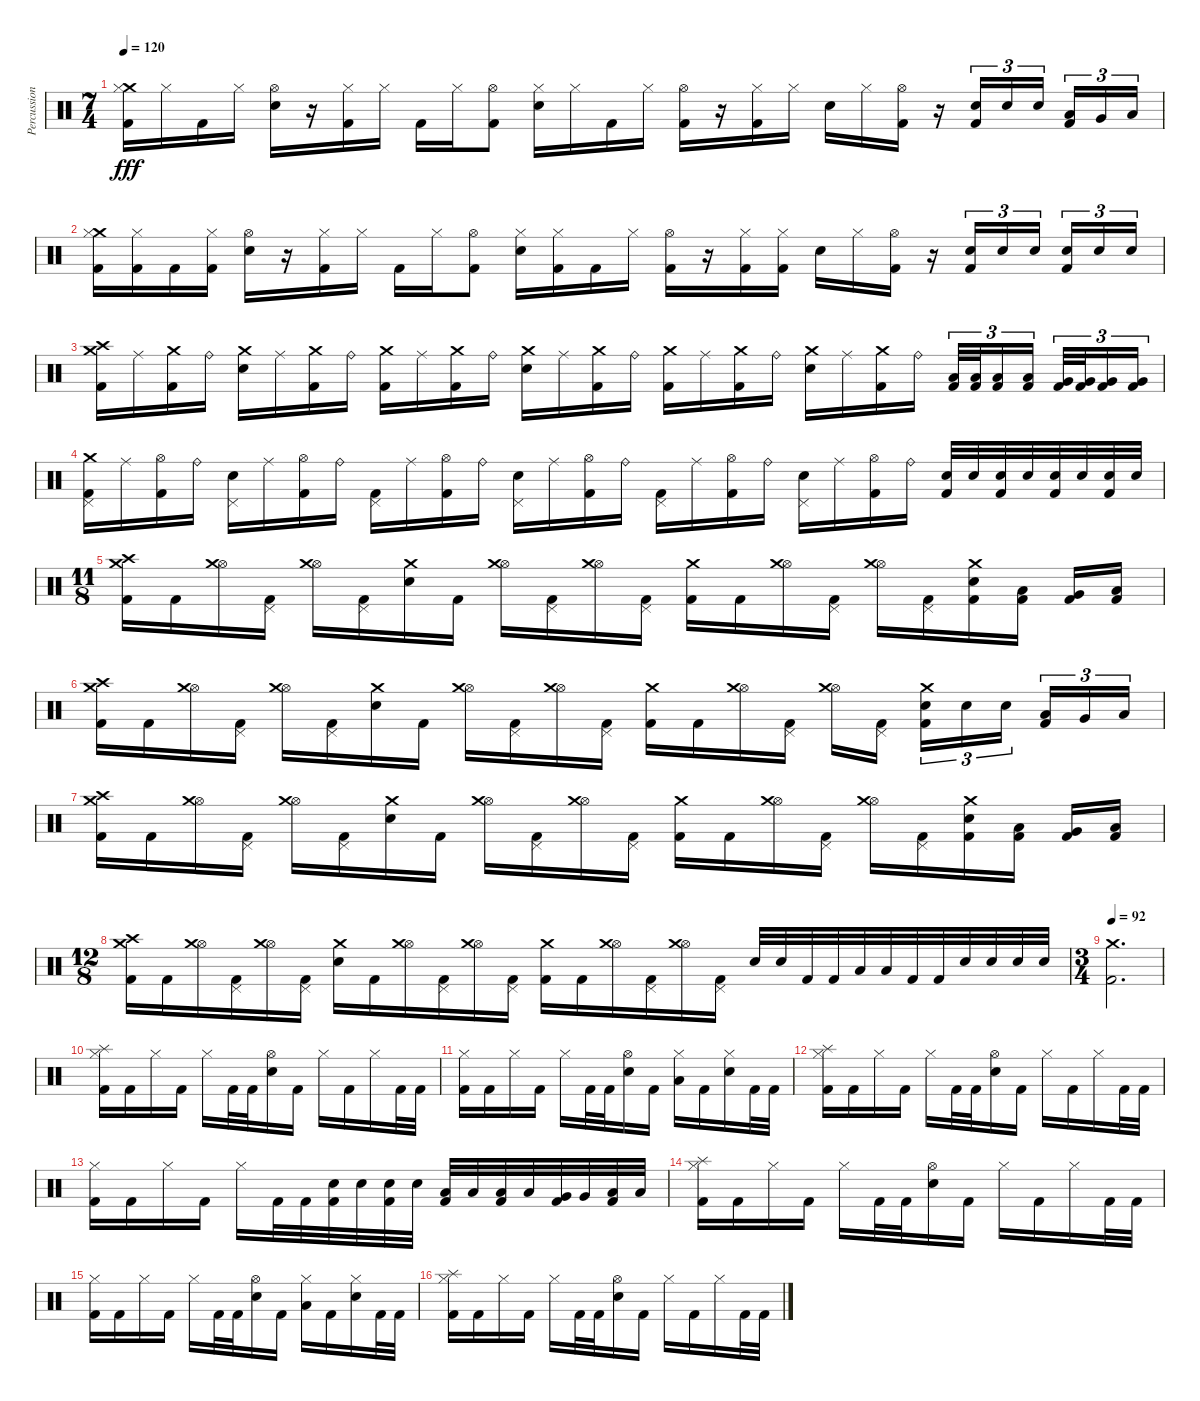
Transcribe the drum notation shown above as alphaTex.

\track ("Percussion" "Percussion") {instrument percussion}
\staff {score}
\articulation defaults
\ts (7 4)
\tempo 120
\clef neutral
\ks c
("Crash medium (hit)" "Hi-Hat (closed)" "Kick (hit) 2").16{dy fff} "Hi-Hat (closed)".16 "Kick (hit) 2".16 "Hi-Hat (closed)".16 ("Hi-Hat (open)" "Electric Snare (hit)").16 r.16 ("Hi-Hat (closed)" "Kick (hit) 2").16 "Hi-Hat (closed)".16 "Kick (hit) 2".16 "Hi-Hat (closed)".16 ("Hi-Hat (open)" "Kick (hit) 2").8 ("Hi-Hat (closed)" "Electric Snare (hit)").16 "Hi-Hat (closed)".16 "Kick (hit) 2".16 "Hi-Hat (closed)".16 ("Hi-Hat (open)" "Kick (hit) 2").16 r.16 ("Hi-Hat (closed)" "Kick (hit) 2").16 "Hi-Hat (closed)".16 "Electric Snare (hit)".16 "Hi-Hat (closed)".16 ("Hi-Hat (open)" "Kick (hit) 2").16 r.16 ("Electric Snare (hit)" "Kick (hit) 2").16{tu (3 2)} "Electric Snare (hit)".16{tu (3 2)} "Electric Snare (hit)".16{tu (3 2) beam splitsecondary} ("Low Tom (hit)" "Kick (hit) 2").16{tu (3 2)} "Very Low Tom (hit)".16{tu (3 2)} "Low Floor Tom (hit)".16{tu (3 2)} |
("Crash medium (hit)" "Hi-Hat (closed)" "Kick (hit) 2").16 ("Hi-Hat (closed)" "Kick (hit) 2").16 "Kick (hit) 2".16 ("Hi-Hat (closed)" "Kick (hit) 2").16 ("Hi-Hat (open)" "Electric Snare (hit)").16 r.16 ("Hi-Hat (closed)" "Kick (hit) 2").16 "Hi-Hat (closed)".16 "Kick (hit) 2".16 "Hi-Hat (closed)".16 ("Hi-Hat (open)" "Kick (hit) 2").8 ("Hi-Hat (closed)" "Electric Snare (hit)").16 ("Hi-Hat (closed)" "Kick (hit) 2").16 "Kick (hit) 2".16 "Hi-Hat (closed)".16 ("Hi-Hat (open)" "Kick (hit) 2").16 r.16 ("Hi-Hat (closed)" "Kick (hit) 2").16 ("Hi-Hat (closed)" "Kick (hit) 2").16 "Electric Snare (hit)".16 "Hi-Hat (closed)".16 ("Hi-Hat (open)" "Kick (hit) 2").16 r.16 ("Electric Snare (hit)" "Kick (hit) 2").16{tu (3 2)} "Electric Snare (hit)".16{tu (3 2)} "Electric Snare (hit)".16{tu (3 2) beam splitsecondary} ("Electric Snare (hit)" "Kick (hit) 2").16{tu (3 2)} "Electric Snare (hit)".16{tu (3 2)} "Electric Snare (hit)".16{tu (3 2)} |
("Crash high (hit)" "Crash medium (hit)" "Kick (hit) 2").16 "Ride (middle)".16 ("Crash medium (hit)" "Kick (hit) 2").16 "Ride (bell)".16 ("Crash medium (hit)" "Electric Snare (hit)").16 "Ride (middle)".16 ("Crash medium (hit)" "Kick (hit) 2").16 "Ride (bell)".16 ("Crash medium (hit)" "Kick (hit) 2").16 "Ride (middle)".16 ("Crash medium (hit)" "Kick (hit) 2").16 "Ride (bell)".16 ("Crash medium (hit)" "Electric Snare (hit)").16 "Ride (middle)".16 ("Crash medium (hit)" "Kick (hit) 2").16 "Ride (bell)".16 ("Crash medium (hit)" "Kick (hit) 2").16 "Ride (middle)".16 ("Crash medium (hit)" "Kick (hit) 2").16 "Ride (bell)".16 ("Crash medium (hit)" "Electric Snare (hit)").16 "Ride (middle)".16 ("Crash medium (hit)" "Kick (hit) 2").16 "Ride (bell)".16 ("Low Tom (hit)" "Kick (hit) 2").32{tu (3 2)} ("Low Tom (hit)" "Kick (hit) 2").32{tu (3 2)} ("Low Tom (hit)" "Kick (hit) 2").16{tu (3 2)} ("Low Tom (hit)" "Kick (hit) 2").16{tu (3 2) beam splitsecondary} ("Very Low Tom (hit)" "Kick (hit) 2").32{tu (3 2)} ("Very Low Tom (hit)" "Kick (hit) 2").32{tu (3 2)} ("Very Low Tom (hit)" "Kick (hit) 2").16{tu (3 2)} ("Very Low Tom (hit)" "Kick (hit) 2").16{tu (3 2)} |
("Pedal Hi-Hat (hit)" "Crash medium (hit)" "Kick (hit) 2").16 "Ride (middle)".16 ("Hi-Hat (open)" "Kick (hit) 2").16 "Ride (bell)".16 ("Pedal Hi-Hat (hit)" "Electric Snare (hit)").16 "Ride (middle)".16 ("Hi-Hat (open)" "Kick (hit) 2").16 "Ride (bell)".16 ("Pedal Hi-Hat (hit)" "Kick (hit) 2").16 "Ride (middle)".16 ("Hi-Hat (open)" "Kick (hit) 2").16 "Ride (bell)".16 ("Pedal Hi-Hat (hit)" "Electric Snare (hit)").16 "Ride (middle)".16 ("Hi-Hat (open)" "Kick (hit) 2").16 "Ride (bell)".16 ("Pedal Hi-Hat (hit)" "Kick (hit) 2").16 "Ride (middle)".16 ("Hi-Hat (open)" "Kick (hit) 2").16 "Ride (bell)".16 ("Pedal Hi-Hat (hit)" "Electric Snare (hit)").16 "Ride (middle)".16 ("Hi-Hat (open)" "Kick (hit) 2").16 "Ride (bell)".16 ("Electric Snare (hit)" "Kick (hit) 2").32 "Electric Snare (hit)".32 ("Electric Snare (hit)" "Kick (hit) 2").32 "Electric Snare (hit)".32 ("Electric Snare (hit)" "Kick (hit) 2").32 "Electric Snare (hit)".32 ("Electric Snare (hit)" "Kick (hit) 2").32 "Electric Snare (hit)".32 |
\ts (11 8)
("Crash high (hit)" "Crash medium (hit)" "Kick (hit) 2").16 "Kick (hit) 2".16 ("Hi-Hat (open)" "Crash medium (hit)").16 ("Pedal Hi-Hat (hit)" "Kick (hit) 2").16 ("Hi-Hat (open)" "Crash medium (hit)").16 ("Pedal Hi-Hat (hit)" "Kick (hit) 2").16 ("Crash medium (hit)" "Electric Snare (hit)").16 "Kick (hit) 2".16 ("Hi-Hat (open)" "Crash medium (hit)").16 ("Pedal Hi-Hat (hit)" "Kick (hit) 2").16 ("Hi-Hat (open)" "Crash medium (hit)").16 ("Pedal Hi-Hat (hit)" "Kick (hit) 2").16 ("Crash medium (hit)" "Kick (hit) 2").16 "Kick (hit) 2".16 ("Hi-Hat (open)" "Crash medium (hit)").16 ("Pedal Hi-Hat (hit)" "Kick (hit) 2").16 ("Hi-Hat (open)" "Crash medium (hit)").16 ("Pedal Hi-Hat (hit)" "Kick (hit) 2").16 ("Crash medium (hit)" "Electric Snare (hit)" "Kick (hit) 2").16 ("Low Tom (hit)" "Kick (hit) 2").16 ("Very Low Tom (hit)" "Kick (hit) 2").16 ("Low Floor Tom (hit)" "Kick (hit) 2").16 |
("Crash high (hit)" "Crash medium (hit)" "Kick (hit) 2").16 "Kick (hit) 2".16 ("Hi-Hat (open)" "Crash medium (hit)").16 ("Pedal Hi-Hat (hit)" "Kick (hit) 2").16 ("Hi-Hat (open)" "Crash medium (hit)").16 ("Pedal Hi-Hat (hit)" "Kick (hit) 2").16 ("Crash medium (hit)" "Electric Snare (hit)").16 "Kick (hit) 2".16 ("Hi-Hat (open)" "Crash medium (hit)").16 ("Pedal Hi-Hat (hit)" "Kick (hit) 2").16 ("Hi-Hat (open)" "Crash medium (hit)").16 ("Pedal Hi-Hat (hit)" "Kick (hit) 2").16 ("Crash medium (hit)" "Kick (hit) 2").16 "Kick (hit) 2".16 ("Hi-Hat (open)" "Crash medium (hit)").16 ("Pedal Hi-Hat (hit)" "Kick (hit) 2").16 ("Hi-Hat (open)" "Crash medium (hit)").16 ("Pedal Hi-Hat (hit)" "Kick (hit) 2").16 ("Crash medium (hit)" "Electric Snare (hit)" "Kick (hit) 2").16{tu (3 2)} "Electric Snare (hit)".16{tu (3 2)} "Electric Snare (hit)".16{tu (3 2)} ("Low Tom (hit)" "Kick (hit) 2").16{tu (3 2)} "Very Low Tom (hit)".16{tu (3 2)} "Low Floor Tom (hit)".16{tu (3 2)} |
("Crash high (hit)" "Crash medium (hit)" "Kick (hit) 2").16 "Kick (hit) 2".16 ("Hi-Hat (open)" "Crash medium (hit)").16 ("Pedal Hi-Hat (hit)" "Kick (hit) 2").16 ("Hi-Hat (open)" "Crash medium (hit)").16 ("Pedal Hi-Hat (hit)" "Kick (hit) 2").16 ("Crash medium (hit)" "Electric Snare (hit)").16 "Kick (hit) 2".16 ("Hi-Hat (open)" "Crash medium (hit)").16 ("Pedal Hi-Hat (hit)" "Kick (hit) 2").16 ("Hi-Hat (open)" "Crash medium (hit)").16 ("Pedal Hi-Hat (hit)" "Kick (hit) 2").16 ("Crash medium (hit)" "Kick (hit) 2").16 "Kick (hit) 2".16 ("Hi-Hat (open)" "Crash medium (hit)").16 ("Pedal Hi-Hat (hit)" "Kick (hit) 2").16 ("Hi-Hat (open)" "Crash medium (hit)").16 ("Pedal Hi-Hat (hit)" "Kick (hit) 2").16 ("Crash medium (hit)" "Electric Snare (hit)" "Kick (hit) 2").16 ("Low Tom (hit)" "Kick (hit) 2").16 ("Very Low Tom (hit)" "Kick (hit) 2").16 ("Low Floor Tom (hit)" "Kick (hit) 2").16 |
\ts (12 8)
("Crash high (hit)" "Crash medium (hit)" "Kick (hit) 2").16 "Kick (hit) 2".16 ("Hi-Hat (open)" "Crash medium (hit)").16 ("Pedal Hi-Hat (hit)" "Kick (hit) 2").16 ("Hi-Hat (open)" "Crash medium (hit)").16 ("Pedal Hi-Hat (hit)" "Kick (hit) 2").16 ("Crash medium (hit)" "Electric Snare (hit)").16 "Kick (hit) 2".16 ("Hi-Hat (open)" "Crash medium (hit)").16 ("Pedal Hi-Hat (hit)" "Kick (hit) 2").16 ("Hi-Hat (open)" "Crash medium (hit)").16 ("Pedal Hi-Hat (hit)" "Kick (hit) 2").16 ("Crash medium (hit)" "Kick (hit) 2").16 "Kick (hit) 2".16 ("Hi-Hat (open)" "Crash medium (hit)").16 ("Pedal Hi-Hat (hit)" "Kick (hit) 2").16 ("Hi-Hat (open)" "Crash medium (hit)").16 ("Pedal Hi-Hat (hit)" "Kick (hit) 2").16 "Electric Snare (hit)".32 "Electric Snare (hit)".32 "Kick (hit) 2".32 "Kick (hit) 2".32 "Low Tom (hit)".32 "Low Tom (hit)".32 "Kick (hit) 2".32 "Kick (hit) 2".32 "Electric Snare (hit)".32 "Electric Snare (hit)".32 "Electric Snare (hit)".32 "Electric Snare (hit)".32 |
\ts (3 4)
\tempo 92
("Crash medium (hit)" "Kick (hit) 2").2{d} |
("Splash (hit)" "Hi-Hat (closed)" "Kick (hit) 2").16 "Kick (hit) 2".16 "Hi-Hat (closed)".16 "Kick (hit) 2".16 "Hi-Hat (closed)".16 "Kick (hit) 2".32 "Kick (hit) 2".32 ("Hi-Hat (open)" "Electric Snare (hit)").16 "Kick (hit) 2".16 "Hi-Hat (closed)".16 "Kick (hit) 2".16 "Hi-Hat (closed)".16 "Kick (hit) 2".32 "Kick (hit) 2".32 |
("Hi-Hat (closed)" "Kick (hit) 2").16 "Kick (hit) 2".16 "Hi-Hat (closed)".16 "Kick (hit) 2".16 "Hi-Hat (closed)".16 "Kick (hit) 2".32 "Kick (hit) 2".32 ("Hi-Hat (open)" "Electric Snare (hit)").16 "Kick (hit) 2".16 ("Hi-Hat (closed)" "Low Tom (hit)").16 "Kick (hit) 2".16 ("Hi-Hat (closed)" "Electric Snare (hit)").16 "Kick (hit) 2".32 "Kick (hit) 2".32 |
("Splash (hit)" "Hi-Hat (closed)" "Kick (hit) 2").16 "Kick (hit) 2".16 "Hi-Hat (closed)".16 "Kick (hit) 2".16 "Hi-Hat (closed)".16 "Kick (hit) 2".32 "Kick (hit) 2".32 ("Hi-Hat (open)" "Electric Snare (hit)").16 "Kick (hit) 2".16 "Hi-Hat (closed)".16 "Kick (hit) 2".16 "Hi-Hat (closed)".16 "Kick (hit) 2".32 "Kick (hit) 2".32 |
("Hi-Hat (closed)" "Kick (hit) 2").16 "Kick (hit) 2".16 "Hi-Hat (closed)".16 "Kick (hit) 2".16 "Hi-Hat (closed)".16 "Kick (hit) 2".32 "Kick (hit) 2".32 ("Electric Snare (hit)" "Kick (hit) 2").32 "Electric Snare (hit)".32 ("Electric Snare (hit)" "Kick (hit) 2").32 "Electric Snare (hit)".32 ("Low Tom (hit)" "Kick (hit) 2").32 "Low Tom (hit)".32 ("Low Tom (hit)" "Kick (hit) 2").32 "Low Tom (hit)".32 ("Very Low Tom (hit)" "Kick (hit) 2").32 "Very Low Tom (hit)".32 ("Low Floor Tom (hit)" "Kick (hit) 2").32 "Low Floor Tom (hit)".32 |
("Splash (hit)" "Hi-Hat (closed)" "Kick (hit) 2").16 "Kick (hit) 2".16 "Hi-Hat (closed)".16 "Kick (hit) 2".16 "Hi-Hat (closed)".16 "Kick (hit) 2".32 "Kick (hit) 2".32 ("Hi-Hat (open)" "Electric Snare (hit)").16 "Kick (hit) 2".16 "Hi-Hat (closed)".16 "Kick (hit) 2".16 "Hi-Hat (closed)".16 "Kick (hit) 2".32 "Kick (hit) 2".32 |
("Hi-Hat (closed)" "Kick (hit) 2").16 "Kick (hit) 2".16 "Hi-Hat (closed)".16 "Kick (hit) 2".16 "Hi-Hat (closed)".16 "Kick (hit) 2".32 "Kick (hit) 2".32 ("Hi-Hat (open)" "Electric Snare (hit)").16 "Kick (hit) 2".16 ("Hi-Hat (closed)" "Low Tom (hit)").16 "Kick (hit) 2".16 ("Hi-Hat (closed)" "Electric Snare (hit)").16 "Kick (hit) 2".32 "Kick (hit) 2".32 |
("Splash (hit)" "Hi-Hat (closed)" "Kick (hit) 2").16 "Kick (hit) 2".16 "Hi-Hat (closed)".16 "Kick (hit) 2".16 "Hi-Hat (closed)".16 "Kick (hit) 2".32 "Kick (hit) 2".32 ("Hi-Hat (open)" "Electric Snare (hit)").16 "Kick (hit) 2".16 "Hi-Hat (closed)".16 "Kick (hit) 2".16 "Hi-Hat (closed)".16 "Kick (hit) 2".32 "Kick (hit) 2".32
